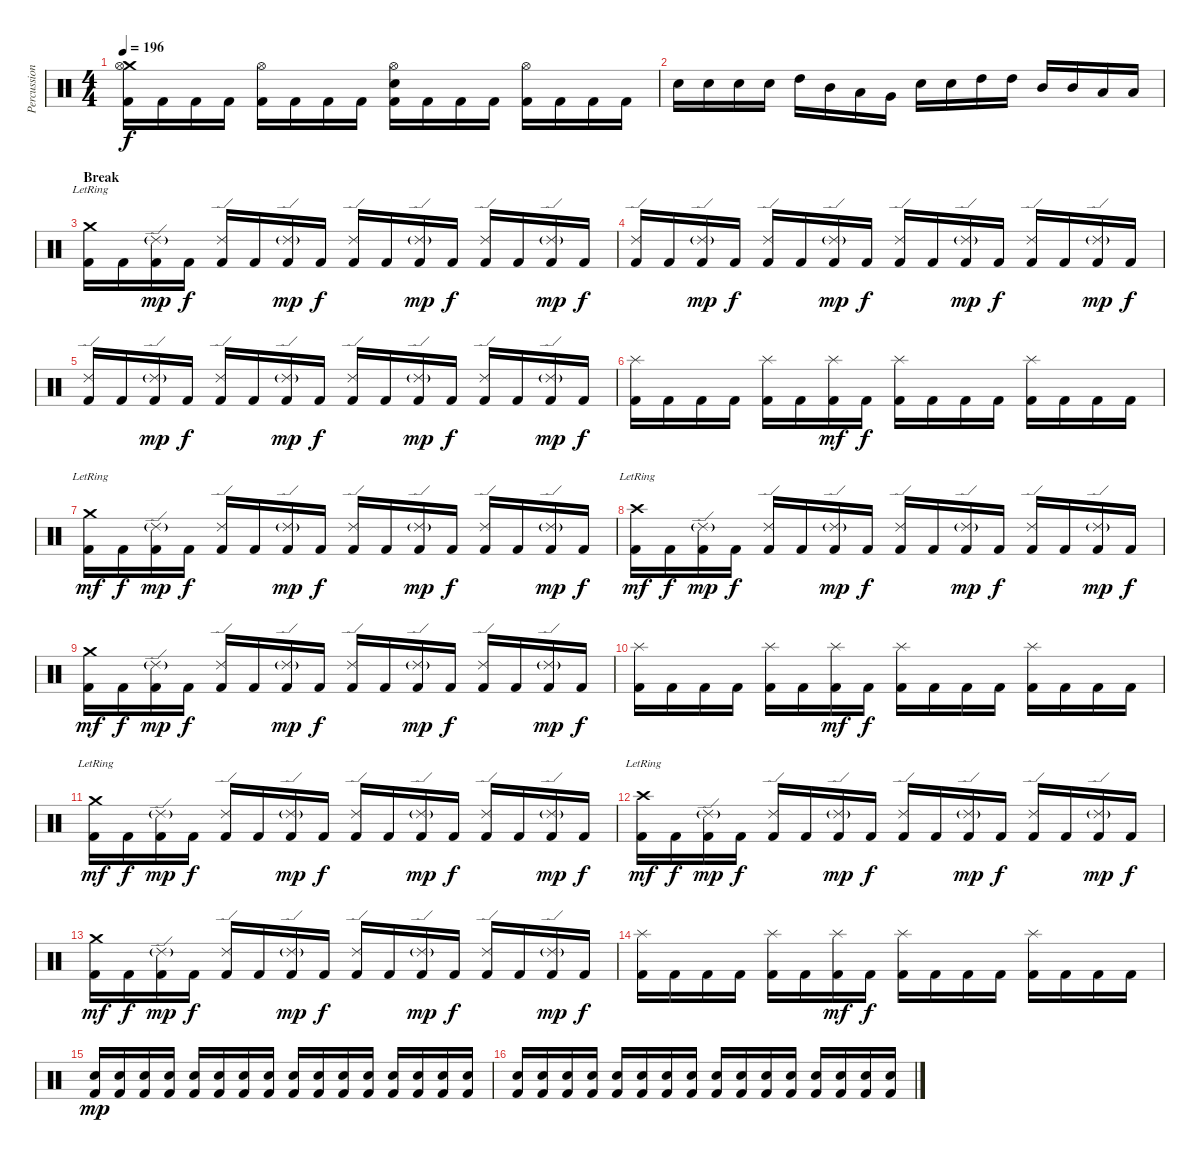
\track ("Percussions" "Percussion") {instrument percussion}
\staff {score}
\articulation defaults
\ts (4 4)
\tempo 196
\clef neutral
\ks c
("Crash medium (hit)" "Hi-Hat (open)" "Kick (hit) 2").16{dy f} "Kick (hit) 2".16 "Kick (hit) 2".16 "Kick (hit) 2".16 ("Hi-Hat (open)" "Kick (hit) 2").16 "Kick (hit) 2".16 "Kick (hit) 2".16 "Kick (hit) 2".16 ("Hi-Hat (open)" "Electric Snare (hit)" "Kick (hit) 2").16 "Kick (hit) 2".16 "Kick (hit) 2".16 "Kick (hit) 2".16 ("Hi-Hat (open)" "Kick (hit) 2").16 "Kick (hit) 2".16 "Kick (hit) 2".16 "Kick (hit) 2".16 |
"Electric Snare (hit)".16 "Electric Snare (hit)".16 "Electric Snare (hit)".16 "Electric Snare (hit)".16 "High Tom (hit)".16 "Mid Tom (hit)".16 "Low Tom (hit)".16 "Very Low Tom (hit)".16 "Electric Snare (hit)".16 "Electric Snare (hit)".16 "High Tom (hit)".16 "High Tom (hit)".16 "Mid Tom (hit)".16 "Mid Tom (hit)".16 "Low Tom (hit)".16 "Low Tom (hit)".16 |
\section ("" "Break")
("Crash medium (hit)"{lr} "Kick (hit) 2").16 "Kick (hit) 2".16 ("Ride (edge) 2"{g} "Kick (hit) 2").16{dy mp} "Kick (hit) 2".16{dy f} ("Ride (edge) 2" "Kick (hit) 2").16 "Kick (hit) 2".16 ("Ride (edge) 2"{g} "Kick (hit) 2").16{dy mp} "Kick (hit) 2".16{dy f} ("Ride (edge) 2" "Kick (hit) 2").16 "Kick (hit) 2".16 ("Ride (edge) 2"{g} "Kick (hit) 2").16{dy mp} "Kick (hit) 2".16{dy f} ("Ride (edge) 2" "Kick (hit) 2").16 "Kick (hit) 2".16 ("Ride (edge) 2"{g} "Kick (hit) 2").16{dy mp} "Kick (hit) 2".16{dy f} |
("Ride (edge) 2" "Kick (hit) 2").16 "Kick (hit) 2".16 ("Ride (edge) 2"{g} "Kick (hit) 2").16{dy mp} "Kick (hit) 2".16{dy f} ("Ride (edge) 2" "Kick (hit) 2").16 "Kick (hit) 2".16 ("Ride (edge) 2"{g} "Kick (hit) 2").16{dy mp} "Kick (hit) 2".16{dy f} ("Ride (edge) 2" "Kick (hit) 2").16 "Kick (hit) 2".16 ("Ride (edge) 2"{g} "Kick (hit) 2").16{dy mp} "Kick (hit) 2".16{dy f} ("Ride (edge) 2" "Kick (hit) 2").16 "Kick (hit) 2".16 ("Ride (edge) 2"{g} "Kick (hit) 2").16{dy mp} "Kick (hit) 2".16{dy f} |
("Ride (edge) 2" "Kick (hit) 2").16 "Kick (hit) 2".16 ("Ride (edge) 2"{g} "Kick (hit) 2").16{dy mp} "Kick (hit) 2".16{dy f} ("Ride (edge) 2" "Kick (hit) 2").16 "Kick (hit) 2".16 ("Ride (edge) 2"{g} "Kick (hit) 2").16{dy mp} "Kick (hit) 2".16{dy f} ("Ride (edge) 2" "Kick (hit) 2").16 "Kick (hit) 2".16 ("Ride (edge) 2"{g} "Kick (hit) 2").16{dy mp} "Kick (hit) 2".16{dy f} ("Ride (edge) 2" "Kick (hit) 2").16 "Kick (hit) 2".16 ("Ride (edge) 2"{g} "Kick (hit) 2").16{dy mp} "Kick (hit) 2".16{dy f} |
("Splash (hit)" "Kick (hit) 2").16 "Kick (hit) 2".16 "Kick (hit) 2".16 "Kick (hit) 2".16 ("Splash (hit)" "Kick (hit) 2").16 "Kick (hit) 2".16 ("Splash (hit)" "Kick (hit) 2").16{dy mf} "Kick (hit) 2".16{dy f} ("Splash (hit)" "Kick (hit) 2").16 "Kick (hit) 2".16 "Kick (hit) 2".16 "Kick (hit) 2".16 ("Splash (hit)" "Kick (hit) 2").16 "Kick (hit) 2".16 "Kick (hit) 2".16 "Kick (hit) 2".16 |
("Crash medium (hit)"{lr} "Kick (hit) 2").16{dy mf} "Kick (hit) 2".16{dy f} ("Ride (edge) 2"{g} "Kick (hit) 2").16{dy mp} "Kick (hit) 2".16{dy f} ("Ride (edge) 2" "Kick (hit) 2").16 "Kick (hit) 2".16 ("Ride (edge) 2"{g} "Kick (hit) 2").16{dy mp} "Kick (hit) 2".16{dy f} ("Ride (edge) 2" "Kick (hit) 2").16 "Kick (hit) 2".16 ("Ride (edge) 2"{g} "Kick (hit) 2").16{dy mp} "Kick (hit) 2".16{dy f} ("Ride (edge) 2" "Kick (hit) 2").16 "Kick (hit) 2".16 ("Ride (edge) 2"{g} "Kick (hit) 2").16{dy mp} "Kick (hit) 2".16{dy f} |
("Crash high (hit)"{lr} "Kick (hit) 2").16{dy mf} "Kick (hit) 2".16{dy f} ("Ride (edge) 2"{g} "Kick (hit) 2").16{dy mp} "Kick (hit) 2".16{dy f} ("Ride (edge) 2" "Kick (hit) 2").16 "Kick (hit) 2".16 ("Ride (edge) 2"{g} "Kick (hit) 2").16{dy mp} "Kick (hit) 2".16{dy f} ("Ride (edge) 2" "Kick (hit) 2").16 "Kick (hit) 2".16 ("Ride (edge) 2"{g} "Kick (hit) 2").16{dy mp} "Kick (hit) 2".16{dy f} ("Ride (edge) 2" "Kick (hit) 2").16 "Kick (hit) 2".16 ("Ride (edge) 2"{g} "Kick (hit) 2").16{dy mp} "Kick (hit) 2".16{dy f} |
("Crash medium (hit)" "Kick (hit) 2").16{dy mf} "Kick (hit) 2".16{dy f} ("Ride (edge) 2"{g} "Kick (hit) 2").16{dy mp} "Kick (hit) 2".16{dy f} ("Ride (edge) 2" "Kick (hit) 2").16 "Kick (hit) 2".16 ("Ride (edge) 2"{g} "Kick (hit) 2").16{dy mp} "Kick (hit) 2".16{dy f} ("Ride (edge) 2" "Kick (hit) 2").16 "Kick (hit) 2".16 ("Ride (edge) 2"{g} "Kick (hit) 2").16{dy mp} "Kick (hit) 2".16{dy f} ("Ride (edge) 2" "Kick (hit) 2").16 "Kick (hit) 2".16 ("Ride (edge) 2"{g} "Kick (hit) 2").16{dy mp} "Kick (hit) 2".16{dy f} |
("Splash (hit)" "Kick (hit) 2").16 "Kick (hit) 2".16 "Kick (hit) 2".16 "Kick (hit) 2".16 ("Splash (hit)" "Kick (hit) 2").16 "Kick (hit) 2".16 ("Splash (hit)" "Kick (hit) 2").16{dy mf} "Kick (hit) 2".16{dy f} ("Splash (hit)" "Kick (hit) 2").16 "Kick (hit) 2".16 "Kick (hit) 2".16 "Kick (hit) 2".16 ("Splash (hit)" "Kick (hit) 2").16 "Kick (hit) 2".16 "Kick (hit) 2".16 "Kick (hit) 2".16 |
("Crash medium (hit)"{lr} "Kick (hit) 2").16{dy mf} "Kick (hit) 2".16{dy f} ("Ride (edge) 2"{g} "Kick (hit) 2").16{dy mp} "Kick (hit) 2".16{dy f} ("Ride (edge) 2" "Kick (hit) 2").16 "Kick (hit) 2".16 ("Ride (edge) 2"{g} "Kick (hit) 2").16{dy mp} "Kick (hit) 2".16{dy f} ("Ride (edge) 2" "Kick (hit) 2").16 "Kick (hit) 2".16 ("Ride (edge) 2"{g} "Kick (hit) 2").16{dy mp} "Kick (hit) 2".16{dy f} ("Ride (edge) 2" "Kick (hit) 2").16 "Kick (hit) 2".16 ("Ride (edge) 2"{g} "Kick (hit) 2").16{dy mp} "Kick (hit) 2".16{dy f} |
("Crash high (hit)"{lr} "Kick (hit) 2").16{dy mf} "Kick (hit) 2".16{dy f} ("Ride (edge) 2"{g} "Kick (hit) 2").16{dy mp} "Kick (hit) 2".16{dy f} ("Ride (edge) 2" "Kick (hit) 2").16 "Kick (hit) 2".16 ("Ride (edge) 2"{g} "Kick (hit) 2").16{dy mp} "Kick (hit) 2".16{dy f} ("Ride (edge) 2" "Kick (hit) 2").16 "Kick (hit) 2".16 ("Ride (edge) 2"{g} "Kick (hit) 2").16{dy mp} "Kick (hit) 2".16{dy f} ("Ride (edge) 2" "Kick (hit) 2").16 "Kick (hit) 2".16 ("Ride (edge) 2"{g} "Kick (hit) 2").16{dy mp} "Kick (hit) 2".16{dy f} |
("Crash medium (hit)" "Kick (hit) 2").16{dy mf} "Kick (hit) 2".16{dy f} ("Ride (edge) 2"{g} "Kick (hit) 2").16{dy mp} "Kick (hit) 2".16{dy f} ("Ride (edge) 2" "Kick (hit) 2").16 "Kick (hit) 2".16 ("Ride (edge) 2"{g} "Kick (hit) 2").16{dy mp} "Kick (hit) 2".16{dy f} ("Ride (edge) 2" "Kick (hit) 2").16 "Kick (hit) 2".16 ("Ride (edge) 2"{g} "Kick (hit) 2").16{dy mp} "Kick (hit) 2".16{dy f} ("Ride (edge) 2" "Kick (hit) 2").16 "Kick (hit) 2".16 ("Ride (edge) 2"{g} "Kick (hit) 2").16{dy mp} "Kick (hit) 2".16{dy f} |
("Splash (hit)" "Kick (hit) 2").16 "Kick (hit) 2".16 "Kick (hit) 2".16 "Kick (hit) 2".16 ("Splash (hit)" "Kick (hit) 2").16 "Kick (hit) 2".16 ("Splash (hit)" "Kick (hit) 2").16{dy mf} "Kick (hit) 2".16{dy f} ("Splash (hit)" "Kick (hit) 2").16 "Kick (hit) 2".16 "Kick (hit) 2".16 "Kick (hit) 2".16 ("Splash (hit)" "Kick (hit) 2").16 "Kick (hit) 2".16 "Kick (hit) 2".16 "Kick (hit) 2".16 |
("Electric Snare (hit)" "Kick (hit) 2").16{dy mp} ("Electric Snare (hit)" "Kick (hit) 2").16 ("Electric Snare (hit)" "Kick (hit) 2").16 ("Electric Snare (hit)" "Kick (hit) 2").16 ("Electric Snare (hit)" "Kick (hit) 2").16 ("Electric Snare (hit)" "Kick (hit) 2").16 ("Electric Snare (hit)" "Kick (hit) 2").16 ("Electric Snare (hit)" "Kick (hit) 2").16 ("Electric Snare (hit)" "Kick (hit) 2").16 ("Electric Snare (hit)" "Kick (hit) 2").16 ("Electric Snare (hit)" "Kick (hit) 2").16 ("Electric Snare (hit)" "Kick (hit) 2").16 ("Electric Snare (hit)" "Kick (hit) 2").16 ("Electric Snare (hit)" "Kick (hit) 2").16 ("Electric Snare (hit)" "Kick (hit) 2").16 ("Electric Snare (hit)" "Kick (hit) 2").16 |
("Electric Snare (hit)" "Kick (hit) 2").16 ("Electric Snare (hit)" "Kick (hit) 2").16 ("Electric Snare (hit)" "Kick (hit) 2").16 ("Electric Snare (hit)" "Kick (hit) 2").16 ("Electric Snare (hit)" "Kick (hit) 2").16 ("Electric Snare (hit)" "Kick (hit) 2").16 ("Electric Snare (hit)" "Kick (hit) 2").16 ("Electric Snare (hit)" "Kick (hit) 2").16 ("Electric Snare (hit)" "Kick (hit) 2").16 ("Electric Snare (hit)" "Kick (hit) 2").16 ("Electric Snare (hit)" "Kick (hit) 2").16 ("Electric Snare (hit)" "Kick (hit) 2").16 ("Electric Snare (hit)" "Kick (hit) 2").16 ("Electric Snare (hit)" "Kick (hit) 2").16 ("Electric Snare (hit)" "Kick (hit) 2").16 ("Electric Snare (hit)" "Kick (hit) 2").16
